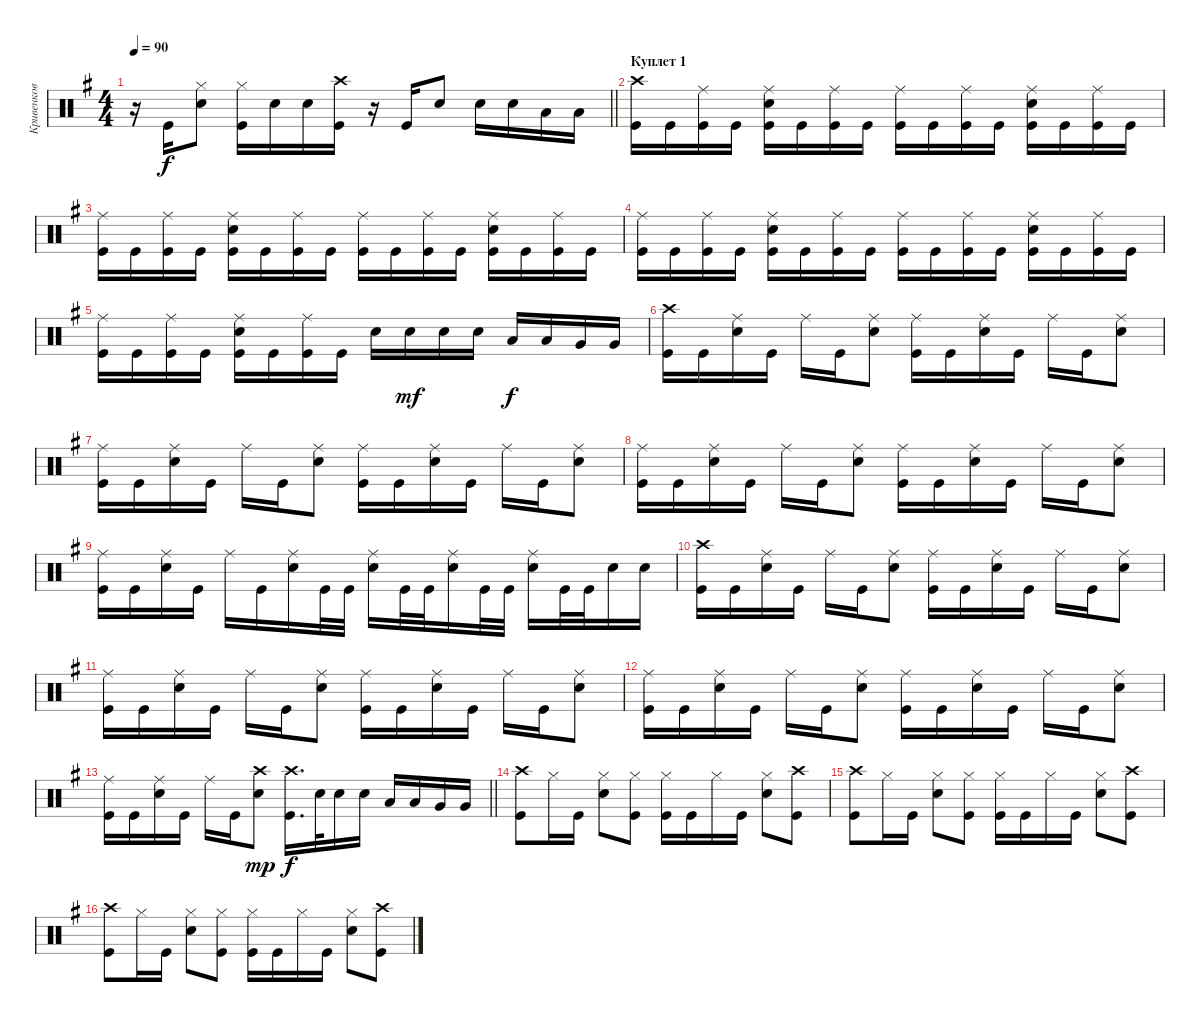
\track ("Кривенков" "Кривенков") {instrument percussion}
\staff {score}
\articulation defaults
\ts (4 4)
\tempo 90
\clef neutral
\barLineRight lightlight
\ks eminor
r.16{dy f} "Kick (hit)".16 ("Snare (hit) 2" "Hi-Hat (closed)").8 ("Kick (hit)" "Hi-Hat (closed)").16 "Snare (hit) 2".16 "Snare (hit) 2".16 ("Kick (hit)" "Crash high (hit)").16 r.16 "Kick (hit)".16 "Snare (hit) 2".8 "Snare (hit) 2".16 "Snare (hit) 2".16 "Low Tom (hit)".16 "Low Tom (hit)".16 |
\section ("" "Куплет 1")
("Kick (hit)" "Crash high (hit)").16 "Kick (hit)".16 ("Kick (hit)" "Ride (middle)").16 "Kick (hit)".16 ("Kick (hit)" "Ride (middle)" "Snare (hit) 2").16 "Kick (hit)".16 ("Kick (hit)" "Ride (middle)").16 "Kick (hit)".16 ("Kick (hit)" "Ride (middle)").16 "Kick (hit)".16 ("Kick (hit)" "Ride (middle)").16 "Kick (hit)".16 ("Kick (hit)" "Ride (middle)" "Snare (hit) 2").16 "Kick (hit)".16 ("Kick (hit)" "Ride (middle)").16 "Kick (hit)".16 |
("Kick (hit)" "Ride (middle)").16 "Kick (hit)".16 ("Kick (hit)" "Ride (middle)").16 "Kick (hit)".16 ("Kick (hit)" "Ride (middle)" "Snare (hit) 2").16 "Kick (hit)".16 ("Kick (hit)" "Ride (middle)").16 "Kick (hit)".16 ("Kick (hit)" "Ride (middle)").16 "Kick (hit)".16 ("Kick (hit)" "Ride (middle)").16 "Kick (hit)".16 ("Kick (hit)" "Ride (middle)" "Snare (hit) 2").16 "Kick (hit)".16 ("Kick (hit)" "Ride (middle)").16 "Kick (hit)".16 |
("Kick (hit)" "Ride (middle)").16 "Kick (hit)".16 ("Kick (hit)" "Ride (middle)").16 "Kick (hit)".16 ("Kick (hit)" "Ride (middle)" "Snare (hit) 2").16 "Kick (hit)".16 ("Kick (hit)" "Ride (middle)").16 "Kick (hit)".16 ("Kick (hit)" "Ride (middle)").16 "Kick (hit)".16 ("Kick (hit)" "Ride (middle)").16 "Kick (hit)".16 ("Kick (hit)" "Ride (middle)" "Snare (hit) 2").16 "Kick (hit)".16 ("Kick (hit)" "Ride (middle)").16 "Kick (hit)".16 |
("Kick (hit)" "Ride (middle)").16 "Kick (hit)".16 ("Kick (hit)" "Ride (middle)").16 "Kick (hit)".16 ("Kick (hit)" "Ride (middle)" "Snare (hit) 2").16 "Kick (hit)".16 ("Kick (hit)" "Ride (middle)").16 "Kick (hit)".16 "Snare (hit) 2".16 "Snare (hit) 2".16{dy mf} "Snare (hit) 2".16 "Snare (hit) 2".16 "Low Tom (hit)".16{dy f} "Low Tom (hit)".16 "Very Low Tom (hit)".16 "Very Low Tom (hit)".16 |
("Kick (hit)" "Crash high (hit)").16 "Kick (hit)".16 ("Snare (hit) 2" "Ride (middle)").16 "Kick (hit)".16 "Ride (middle)".16 "Kick (hit)".16 ("Ride (middle)" "Snare (hit) 2").8 ("Kick (hit)" "Ride (middle)").16 "Kick (hit)".16 ("Snare (hit) 2" "Ride (middle)").16 "Kick (hit)".16 "Ride (middle)".16 "Kick (hit)".16 ("Ride (middle)" "Snare (hit) 2").8 |
("Kick (hit)" "Ride (middle)").16 "Kick (hit)".16 ("Snare (hit) 2" "Ride (middle)").16 "Kick (hit)".16 "Ride (middle)".16 "Kick (hit)".16 ("Ride (middle)" "Snare (hit) 2").8 ("Kick (hit)" "Ride (middle)").16 "Kick (hit)".16 ("Snare (hit) 2" "Ride (middle)").16 "Kick (hit)".16 "Ride (middle)".16 "Kick (hit)".16 ("Ride (middle)" "Snare (hit) 2").8 |
("Kick (hit)" "Ride (middle)").16 "Kick (hit)".16 ("Snare (hit) 2" "Ride (middle)").16 "Kick (hit)".16 "Ride (middle)".16 "Kick (hit)".16 ("Ride (middle)" "Snare (hit) 2").8 ("Kick (hit)" "Ride (middle)").16 "Kick (hit)".16 ("Snare (hit) 2" "Ride (middle)").16 "Kick (hit)".16 "Ride (middle)".16 "Kick (hit)".16 ("Ride (middle)" "Snare (hit) 2").8 |
("Kick (hit)" "Ride (middle)").16 "Kick (hit)".16 ("Snare (hit) 2" "Ride (middle)").16 "Kick (hit)".16 "Ride (middle)".16 "Kick (hit)".16 ("Ride (middle)" "Snare (hit) 2").16 "Kick (hit)".32 "Kick (hit)".32 ("Snare (hit) 2" "Ride (middle)").16 "Kick (hit)".32 "Kick (hit)".32 ("Snare (hit) 2" "Ride (middle)").16 "Kick (hit)".32 "Kick (hit)".32 ("Snare (hit) 2" "Ride (middle)").16 "Kick (hit)".32 "Kick (hit)".32 "Snare (hit) 2".16 "Snare (hit) 2".16 |
("Kick (hit)" "Crash high (hit)").16 "Kick (hit)".16 ("Snare (hit) 2" "Ride (middle)").16 "Kick (hit)".16 "Ride (middle)".16 "Kick (hit)".16 ("Ride (middle)" "Snare (hit) 2").8 ("Kick (hit)" "Ride (middle)").16 "Kick (hit)".16 ("Snare (hit) 2" "Ride (middle)").16 "Kick (hit)".16 "Ride (middle)".16 "Kick (hit)".16 ("Ride (middle)" "Snare (hit) 2").8 |
("Kick (hit)" "Ride (middle)").16 "Kick (hit)".16 ("Snare (hit) 2" "Ride (middle)").16 "Kick (hit)".16 "Ride (middle)".16 "Kick (hit)".16 ("Ride (middle)" "Snare (hit) 2").8 ("Kick (hit)" "Ride (middle)").16 "Kick (hit)".16 ("Snare (hit) 2" "Ride (middle)").16 "Kick (hit)".16 "Ride (middle)".16 "Kick (hit)".16 ("Ride (middle)" "Snare (hit) 2").8 |
("Kick (hit)" "Ride (middle)").16 "Kick (hit)".16 ("Snare (hit) 2" "Ride (middle)").16 "Kick (hit)".16 "Ride (middle)".16 "Kick (hit)".16 ("Ride (middle)" "Snare (hit) 2").8 ("Kick (hit)" "Ride (middle)").16 "Kick (hit)".16 ("Snare (hit) 2" "Ride (middle)").16 "Kick (hit)".16 "Ride (middle)".16 "Kick (hit)".16 ("Ride (middle)" "Snare (hit) 2").8 |
\barLineRight lightlight
("Kick (hit)" "Ride (middle)").16 "Kick (hit)".16 ("Snare (hit) 2" "Ride (middle)").16 "Kick (hit)".16 "Ride (middle)".16 "Kick (hit)".16 ("Crash high (hit)" "Snare (hit) 2").8{dy mp} ("Crash high (hit)" "Kick (hit)").16{d dy f} "Snare (hit) 2".32 "Snare (hit) 2".16 "Snare (hit) 2".16 "Low Tom (hit)".16 "Low Tom (hit)".16 "Very Low Tom (hit)".16 "Very Low Tom (hit)".16 |
("Kick (hit)" "Crash high (hit)").8 "Hi-Hat (closed)".16 "Kick (hit)".16 ("Hi-Hat (closed)" "Snare (hit) 2").8 ("Hi-Hat (closed)" "Kick (hit)").8 ("Hi-Hat (closed)" "Kick (hit)").16 "Kick (hit)".16 "Hi-Hat (closed)".16 "Kick (hit)".16 ("Hi-Hat (closed)" "Snare (hit) 2").8 ("Crash high (hit)" "Kick (hit)").8 |
("Kick (hit)" "Crash high (hit)").8 "Hi-Hat (closed)".16 "Kick (hit)".16 ("Hi-Hat (closed)" "Snare (hit) 2").8 ("Hi-Hat (closed)" "Kick (hit)").8 ("Hi-Hat (closed)" "Kick (hit)").16 "Kick (hit)".16 "Hi-Hat (closed)".16 "Kick (hit)".16 ("Hi-Hat (closed)" "Snare (hit) 2").8 ("Crash high (hit)" "Kick (hit)").8 |
("Kick (hit)" "Crash high (hit)").8 "Hi-Hat (closed)".16 "Kick (hit)".16 ("Hi-Hat (closed)" "Snare (hit) 2").8 ("Hi-Hat (closed)" "Kick (hit)").8 ("Hi-Hat (closed)" "Kick (hit)").16 "Kick (hit)".16 "Hi-Hat (closed)".16 "Kick (hit)".16 ("Hi-Hat (closed)" "Snare (hit) 2").8 ("Crash high (hit)" "Kick (hit)").8
